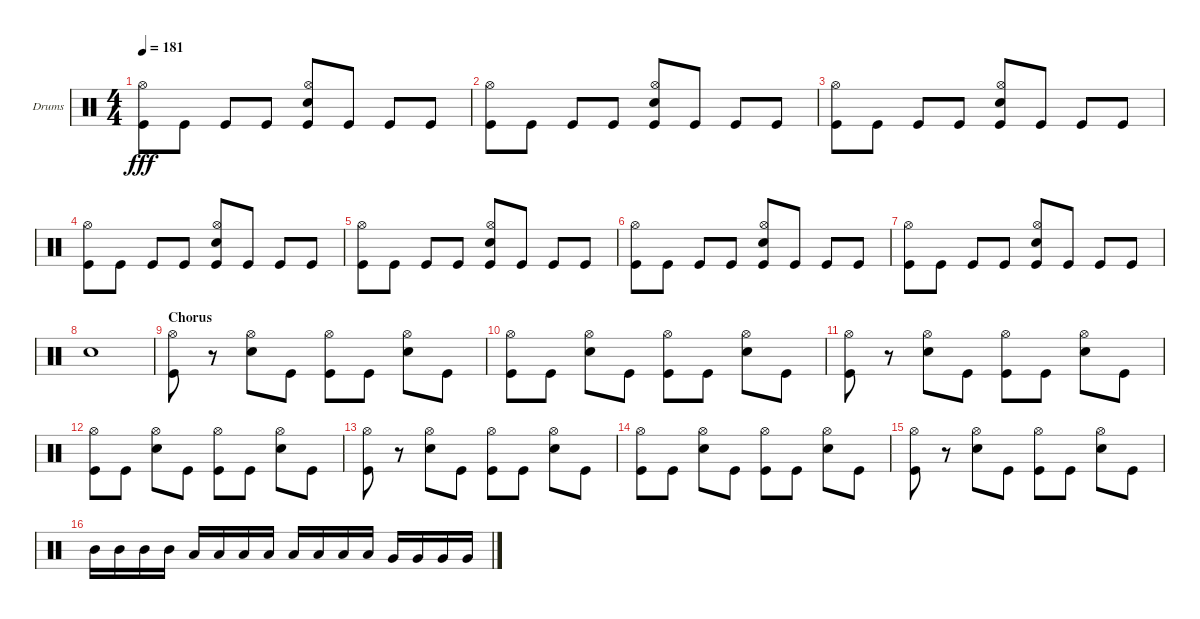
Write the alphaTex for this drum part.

\bracketExtendMode groupsimilarinstruments
\firstSystemTrackNameOrientation horizontal
\otherSystemsTrackNameOrientation horizontal
\track ("Drumkit" "Drums") {solo instrument percussion}
\staff {score}
\articulation defaults
\ts (4 4)
\tempo 181
\clef neutral
\scale
0.333333
\ks c
("Kick (hit)" "Hi-Hat (open)").8{dy fff} "Kick (hit)".8 "Kick (hit)".8 "Kick (hit)".8 ("Kick (hit)" "Snare (hit) 2" "Hi-Hat (open)").8 "Kick (hit)".8 "Kick (hit)".8 "Kick (hit)".8 |
\scale
0.333333 ("Kick (hit)" "Hi-Hat (open)").8 "Kick (hit)".8 "Kick (hit)".8 "Kick (hit)".8 ("Kick (hit)" "Snare (hit) 2" "Hi-Hat (open)").8 "Kick (hit)".8 "Kick (hit)".8 "Kick (hit)".8 |
\scale
0.333333 ("Kick (hit)" "Hi-Hat (open)").8 "Kick (hit)".8 "Kick (hit)".8 "Kick (hit)".8 ("Kick (hit)" "Snare (hit) 2" "Hi-Hat (open)").8 "Kick (hit)".8 "Kick (hit)".8 "Kick (hit)".8 |
\scale
0.333333 ("Kick (hit)" "Hi-Hat (open)").8 "Kick (hit)".8 "Kick (hit)".8 "Kick (hit)".8 ("Kick (hit)" "Snare (hit) 2" "Hi-Hat (open)").8 "Kick (hit)".8 "Kick (hit)".8 "Kick (hit)".8 |
\scale
0.333333 ("Kick (hit)" "Hi-Hat (open)").8 "Kick (hit)".8 "Kick (hit)".8 "Kick (hit)".8 ("Kick (hit)" "Snare (hit) 2" "Hi-Hat (open)").8 "Kick (hit)".8 "Kick (hit)".8 "Kick (hit)".8 |
\scale
0.333333 ("Kick (hit)" "Hi-Hat (open)").8 "Kick (hit)".8 "Kick (hit)".8 "Kick (hit)".8 ("Kick (hit)" "Snare (hit) 2" "Hi-Hat (open)").8 "Kick (hit)".8 "Kick (hit)".8 "Kick (hit)".8 |
\scale
0.333333 ("Kick (hit)" "Hi-Hat (open)").8 "Kick (hit)".8 "Kick (hit)".8 "Kick (hit)".8 ("Kick (hit)" "Snare (hit) 2" "Hi-Hat (open)").8 "Kick (hit)".8 "Kick (hit)".8 "Kick (hit)".8 |
\scale
0.333333 "Snare (hit) 2".1 |
\section ("" "Chorus")
\scale
0.333333 ("Kick (hit)" "Hi-Hat (open)").8 r.8 ("Hi-Hat (open)" "Snare (hit) 2").8 "Kick (hit)".8 ("Kick (hit)" "Hi-Hat (open)").8 "Kick (hit)".8 ("Hi-Hat (open)" "Snare (hit) 2").8 "Kick (hit)".8 |
\scale
0.333333 ("Kick (hit)" "Hi-Hat (open)").8 "Kick (hit)".8 ("Hi-Hat (open)" "Snare (hit) 2").8 "Kick (hit)".8 ("Kick (hit)" "Hi-Hat (open)").8 "Kick (hit)".8 ("Hi-Hat (open)" "Snare (hit) 2").8 "Kick (hit)".8 |
\scale
0.333333 ("Kick (hit)" "Hi-Hat (open)").8 r.8 ("Hi-Hat (open)" "Snare (hit) 2").8 "Kick (hit)".8 ("Kick (hit)" "Hi-Hat (open)").8 "Kick (hit)".8 ("Hi-Hat (open)" "Snare (hit) 2").8 "Kick (hit)".8 |
\scale
0.333333 ("Kick (hit)" "Hi-Hat (open)").8 "Kick (hit)".8 ("Hi-Hat (open)" "Snare (hit) 2").8 "Kick (hit)".8 ("Kick (hit)" "Hi-Hat (open)").8 "Kick (hit)".8 ("Hi-Hat (open)" "Snare (hit) 2").8 "Kick (hit)".8 |
\scale
0.333333 ("Kick (hit)" "Hi-Hat (open)").8 r.8 ("Hi-Hat (open)" "Snare (hit) 2").8 "Kick (hit)".8 ("Kick (hit)" "Hi-Hat (open)").8 "Kick (hit)".8 ("Hi-Hat (open)" "Snare (hit) 2").8 "Kick (hit)".8 |
\scale
0.333333 ("Kick (hit)" "Hi-Hat (open)").8 "Kick (hit)".8 ("Hi-Hat (open)" "Snare (hit) 2").8 "Kick (hit)".8 ("Kick (hit)" "Hi-Hat (open)").8 "Kick (hit)".8 ("Hi-Hat (open)" "Snare (hit) 2").8 "Kick (hit)".8 |
\scale
0.333333 ("Kick (hit)" "Hi-Hat (open)").8 r.8 ("Hi-Hat (open)" "Snare (hit) 2").8 "Kick (hit)".8 ("Kick (hit)" "Hi-Hat (open)").8 "Kick (hit)".8 ("Hi-Hat (open)" "Snare (hit) 2").8 "Kick (hit)".8 |
\scale
0.333333 "Mid Tom (hit)".16 "Mid Tom (hit)".16 "Mid Tom (hit)".16 "Mid Tom (hit)".16 "Low Tom (hit)".16 "Low Tom (hit)".16 "Low Tom (hit)".16 "Low Tom (hit)".16 "Low Tom (hit)".16 "Low Tom (hit)".16 "Low Tom (hit)".16 "Low Tom (hit)".16 "Very Low Tom (hit)".16 "Very Low Tom (hit)".16 "Very Low Tom (hit)".16 "Very Low Tom (hit)".16
